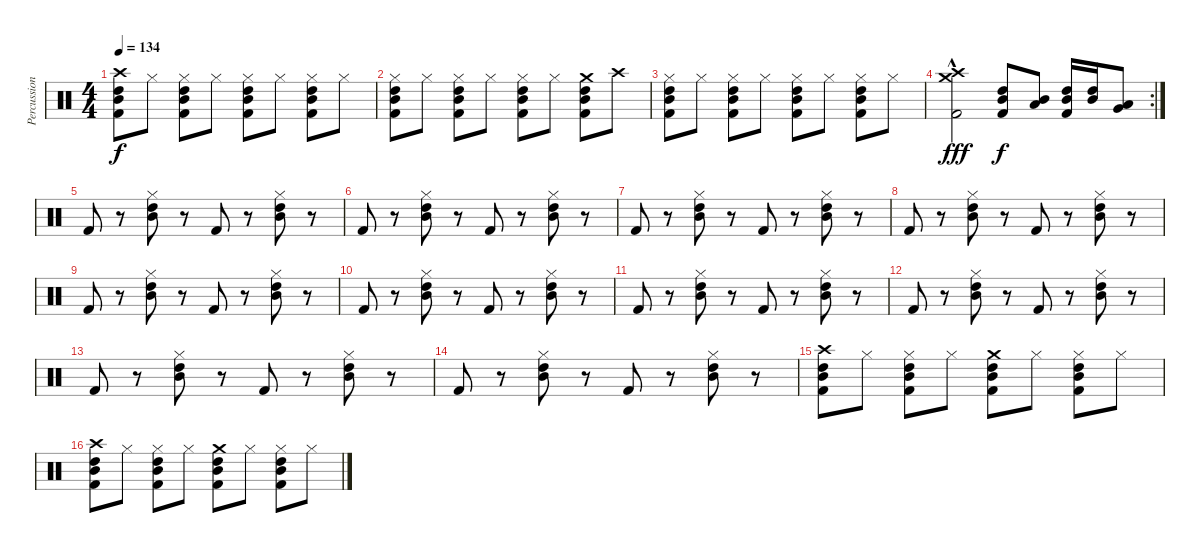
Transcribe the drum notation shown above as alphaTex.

\track ("Percussion" "Percussion") {instrument percussion}
\staff {score}
\articulation defaults
\ts (4 4)
\tempo 134
\clef neutral
\ks c
("Crash high (hit)" "Mid Tom (hit)" "High Tom (hit)" "Kick (hit) 2").8{dy f} "Hi-Hat (closed)".8 ("Hi-Hat (closed)" "Mid Tom (hit)" "High Tom (hit)" "Kick (hit) 2").8 "Hi-Hat (closed)".8 ("Hi-Hat (closed)" "Mid Tom (hit)" "High Tom (hit)" "Kick (hit) 2").8 "Hi-Hat (closed)".8 ("Hi-Hat (closed)" "Mid Tom (hit)" "High Tom (hit)" "Kick (hit) 2").8 "Hi-Hat (closed)".8 |
("Hi-Hat (closed)" "Mid Tom (hit)" "High Tom (hit)" "Kick (hit) 2").8 "Hi-Hat (closed)".8 ("Hi-Hat (closed)" "Mid Tom (hit)" "High Tom (hit)" "Kick (hit) 2").8 "Hi-Hat (closed)".8 ("Hi-Hat (closed)" "Mid Tom (hit)" "High Tom (hit)" "Kick (hit) 2").8 "Hi-Hat (closed)".8 ("Crash medium (hit)" "Mid Tom (hit)" "High Tom (hit)" "Kick (hit) 2").8 "Crash high (hit)".8 |
("Hi-Hat (closed)" "Mid Tom (hit)" "High Tom (hit)" "Kick (hit) 2").8 "Hi-Hat (closed)".8 ("Hi-Hat (closed)" "Mid Tom (hit)" "High Tom (hit)" "Kick (hit) 2").8 "Hi-Hat (closed)".8 ("Hi-Hat (closed)" "Mid Tom (hit)" "High Tom (hit)" "Kick (hit) 2").8 "Hi-Hat (closed)".8 ("Hi-Hat (closed)" "Mid Tom (hit)" "High Tom (hit)" "Kick (hit) 2").8 "Hi-Hat (closed)".8 |
\rc 2
("Crash high (hit)"{hac} "Crash medium (hit)"{hac} "Kick (hit) 2").2{dy fff} ("Mid Tom (hit)" "High Tom (hit)" "Kick (hit) 2").8{dy f} ("Low Tom (hit)" "Mid Tom (hit)").8 ("Mid Tom (hit)" "High Tom (hit)" "Kick (hit) 2").16 ("Mid Tom (hit)" "High Tom (hit)").16 ("Low Tom (hit)" "Very Low Tom (hit)").8 |
"Kick (hit) 2".8 r.8 ("Hi-Hat (closed)" "Mid Tom (hit)" "High Tom (hit)").8 r.8 "Kick (hit) 2".8 r.8 ("Hi-Hat (closed)" "Mid Tom (hit)" "High Tom (hit)").8 r.8 |
"Kick (hit) 2".8 r.8 ("Hi-Hat (closed)" "Mid Tom (hit)" "High Tom (hit)").8 r.8 "Kick (hit) 2".8 r.8 ("Hi-Hat (closed)" "Mid Tom (hit)" "High Tom (hit)").8 r.8 |
"Kick (hit) 2".8 r.8 ("Hi-Hat (closed)" "Mid Tom (hit)" "High Tom (hit)").8 r.8 "Kick (hit) 2".8 r.8 ("Hi-Hat (closed)" "Mid Tom (hit)" "High Tom (hit)").8 r.8 |
"Kick (hit) 2".8 r.8 ("Hi-Hat (closed)" "Mid Tom (hit)" "High Tom (hit)").8 r.8 "Kick (hit) 2".8 r.8 ("Hi-Hat (closed)" "Mid Tom (hit)" "High Tom (hit)").8 r.8 |
"Kick (hit) 2".8 r.8 ("Hi-Hat (closed)" "Mid Tom (hit)" "High Tom (hit)").8 r.8 "Kick (hit) 2".8 r.8 ("Hi-Hat (closed)" "Mid Tom (hit)" "High Tom (hit)").8 r.8 |
"Kick (hit) 2".8 r.8 ("Hi-Hat (closed)" "Mid Tom (hit)" "High Tom (hit)").8 r.8 "Kick (hit) 2".8 r.8 ("Hi-Hat (closed)" "Mid Tom (hit)" "High Tom (hit)").8 r.8 |
"Kick (hit) 2".8 r.8 ("Hi-Hat (closed)" "Mid Tom (hit)" "High Tom (hit)").8 r.8 "Kick (hit) 2".8 r.8 ("Hi-Hat (closed)" "Mid Tom (hit)" "High Tom (hit)").8 r.8 |
"Kick (hit) 2".8 r.8 ("Hi-Hat (closed)" "Mid Tom (hit)" "High Tom (hit)").8 r.8 "Kick (hit) 2".8 r.8 ("Hi-Hat (closed)" "Mid Tom (hit)" "High Tom (hit)").8 r.8 |
"Kick (hit) 2".8 r.8 ("Hi-Hat (closed)" "Mid Tom (hit)" "High Tom (hit)").8 r.8 "Kick (hit) 2".8 r.8 ("Hi-Hat (closed)" "Mid Tom (hit)" "High Tom (hit)").8 r.8 |
"Kick (hit) 2".8 r.8 ("Hi-Hat (closed)" "Mid Tom (hit)" "High Tom (hit)").8 r.8 "Kick (hit) 2".8 r.8 ("Hi-Hat (closed)" "Mid Tom (hit)" "High Tom (hit)").8 r.8 |
("Crash high (hit)" "Mid Tom (hit)" "High Tom (hit)" "Kick (hit) 2").8 "Hi-Hat (closed)".8 ("Hi-Hat (closed)" "Mid Tom (hit)" "High Tom (hit)" "Kick (hit) 2").8 "Hi-Hat (closed)".8 ("Crash medium (hit)" "Mid Tom (hit)" "High Tom (hit)" "Kick (hit) 2").8 "Hi-Hat (closed)".8 ("Hi-Hat (closed)" "Mid Tom (hit)" "High Tom (hit)" "Kick (hit) 2").8 "Hi-Hat (closed)".8 |
("Crash high (hit)" "Mid Tom (hit)" "High Tom (hit)" "Kick (hit) 2").8 "Hi-Hat (closed)".8 ("Hi-Hat (closed)" "Mid Tom (hit)" "High Tom (hit)" "Kick (hit) 2").8 "Hi-Hat (closed)".8 ("Crash medium (hit)" "Mid Tom (hit)" "High Tom (hit)" "Kick (hit) 2").8 "Hi-Hat (closed)".8 ("Hi-Hat (closed)" "Mid Tom (hit)" "High Tom (hit)" "Kick (hit) 2").8 "Hi-Hat (closed)".8
